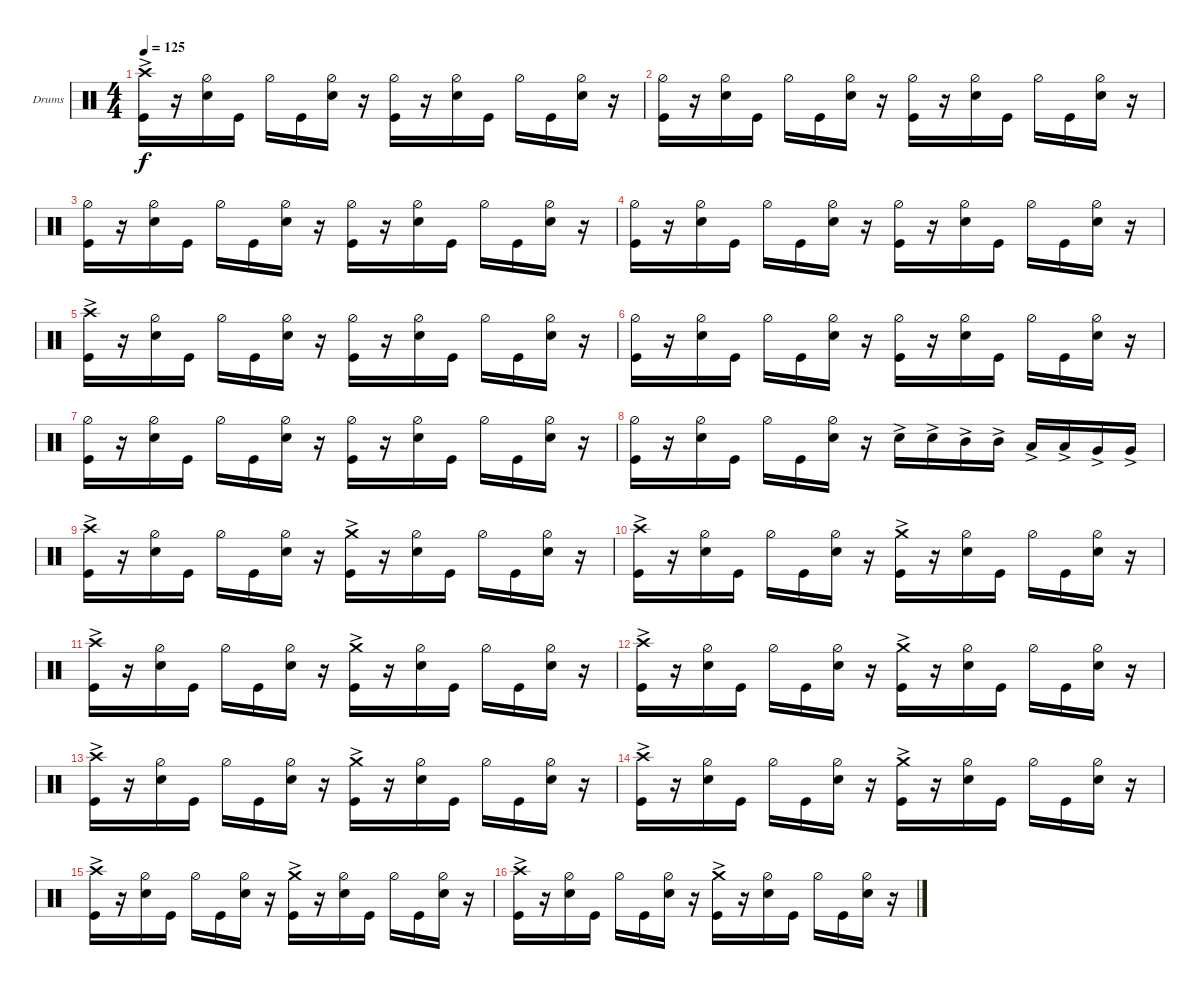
\defaultSystemsLayout 4
\bracketExtendMode groupsimilarinstruments
\firstSystemTrackNameOrientation horizontal
\otherSystemsTrackNameOrientation horizontal
\track ("Lorenzo Milani" "Drums") {instrument percussion}
\staff {score}
\articulation defaults
\ts (4 4)
\tempo 125
\clef neutral
\ks c
("Kick (hit)"{ac} "Crash high (hit)"{ac}).16{dy f} r.16 ("Snare (hit) 2" "Hi-Hat (half)").16 "Kick (hit)".16 "Hi-Hat (half)".16 "Kick (hit)".16 ("Snare (hit) 2" "Hi-Hat (half)").16 r.16 ("Kick (hit)" "Hi-Hat (half)").16 r.16 ("Snare (hit) 2" "Hi-Hat (half)").16 "Kick (hit)".16 "Hi-Hat (half)".16 "Kick (hit)".16 ("Snare (hit) 2" "Hi-Hat (half)").16 r.16 |
("Kick (hit)" "Hi-Hat (half)").16 r.16 ("Snare (hit) 2" "Hi-Hat (half)").16 "Kick (hit)".16 "Hi-Hat (half)".16 "Kick (hit)".16 ("Snare (hit) 2" "Hi-Hat (half)").16 r.16 ("Kick (hit)" "Hi-Hat (half)").16 r.16 ("Snare (hit) 2" "Hi-Hat (half)").16 "Kick (hit)".16 "Hi-Hat (half)".16 "Kick (hit)".16 ("Snare (hit) 2" "Hi-Hat (half)").16 r.16 |
("Kick (hit)" "Hi-Hat (half)").16 r.16 ("Snare (hit) 2" "Hi-Hat (half)").16 "Kick (hit)".16 "Hi-Hat (half)".16 "Kick (hit)".16 ("Snare (hit) 2" "Hi-Hat (half)").16 r.16 ("Kick (hit)" "Hi-Hat (half)").16 r.16 ("Snare (hit) 2" "Hi-Hat (half)").16 "Kick (hit)".16 "Hi-Hat (half)".16 "Kick (hit)".16 ("Snare (hit) 2" "Hi-Hat (half)").16 r.16 |
("Kick (hit)" "Hi-Hat (half)").16 r.16 ("Snare (hit) 2" "Hi-Hat (half)").16 "Kick (hit)".16 "Hi-Hat (half)".16 "Kick (hit)".16 ("Snare (hit) 2" "Hi-Hat (half)").16 r.16 ("Kick (hit)" "Hi-Hat (half)").16 r.16 ("Snare (hit) 2" "Hi-Hat (half)").16 "Kick (hit)".16 "Hi-Hat (half)".16 "Kick (hit)".16 ("Snare (hit) 2" "Hi-Hat (half)").16 r.16 |
("Kick (hit)"{ac} "Crash high (hit)"{ac}).16 r.16 ("Snare (hit) 2" "Hi-Hat (half)").16 "Kick (hit)".16 "Hi-Hat (half)".16 "Kick (hit)".16 ("Snare (hit) 2" "Hi-Hat (half)").16 r.16 ("Kick (hit)" "Hi-Hat (half)").16 r.16 ("Snare (hit) 2" "Hi-Hat (half)").16 "Kick (hit)".16 "Hi-Hat (half)".16 "Kick (hit)".16 ("Snare (hit) 2" "Hi-Hat (half)").16 r.16 |
("Kick (hit)" "Hi-Hat (half)").16 r.16 ("Snare (hit) 2" "Hi-Hat (half)").16 "Kick (hit)".16 "Hi-Hat (half)".16 "Kick (hit)".16 ("Snare (hit) 2" "Hi-Hat (half)").16 r.16 ("Kick (hit)" "Hi-Hat (half)").16 r.16 ("Snare (hit) 2" "Hi-Hat (half)").16 "Kick (hit)".16 "Hi-Hat (half)".16 "Kick (hit)".16 ("Snare (hit) 2" "Hi-Hat (half)").16 r.16 |
("Kick (hit)" "Hi-Hat (half)").16 r.16 ("Snare (hit) 2" "Hi-Hat (half)").16 "Kick (hit)".16 "Hi-Hat (half)".16 "Kick (hit)".16 ("Snare (hit) 2" "Hi-Hat (half)").16 r.16 ("Kick (hit)" "Hi-Hat (half)").16 r.16 ("Snare (hit) 2" "Hi-Hat (half)").16 "Kick (hit)".16 "Hi-Hat (half)".16 "Kick (hit)".16 ("Snare (hit) 2" "Hi-Hat (half)").16 r.16 |
("Kick (hit)" "Hi-Hat (half)").16 r.16 ("Snare (hit) 2" "Hi-Hat (half)").16 "Kick (hit)".16 "Hi-Hat (half)".16 "Kick (hit)".16 ("Snare (hit) 2" "Hi-Hat (half)").16 r.16 "Snare (hit) 2"{ac}.16 "Snare (hit) 2"{ac}.16 "Mid Tom (hit)"{ac}.16 "Mid Tom (hit)"{ac}.16 "Low Tom (hit)"{ac}.16 "Low Tom (hit)"{ac}.16 "Very Low Tom (hit)"{ac}.16 "Very Low Tom (hit)"{ac}.16 |
("Kick (hit)"{ac} "Crash high (hit)"{ac}).16 r.16 ("Snare (hit) 2" "Hi-Hat (half)").16 "Kick (hit)".16 "Hi-Hat (half)".16 "Kick (hit)".16 ("Snare (hit) 2" "Hi-Hat (half)").16 r.16 ("Kick (hit)"{ac} "Crash medium (hit)"{ac}).16 r.16 ("Snare (hit) 2" "Hi-Hat (half)").16 "Kick (hit)".16 "Hi-Hat (half)".16 "Kick (hit)".16 ("Snare (hit) 2" "Hi-Hat (half)").16 r.16 |
("Kick (hit)"{ac} "Crash high (hit)"{ac}).16 r.16 ("Snare (hit) 2" "Hi-Hat (half)").16 "Kick (hit)".16 "Hi-Hat (half)".16 "Kick (hit)".16 ("Snare (hit) 2" "Hi-Hat (half)").16 r.16 ("Kick (hit)"{ac} "Crash medium (hit)"{ac}).16 r.16 ("Snare (hit) 2" "Hi-Hat (half)").16 "Kick (hit)".16 "Hi-Hat (half)".16 "Kick (hit)".16 ("Snare (hit) 2" "Hi-Hat (half)").16 r.16 |
("Kick (hit)"{ac} "Crash high (hit)"{ac}).16 r.16 ("Snare (hit) 2" "Hi-Hat (half)").16 "Kick (hit)".16 "Hi-Hat (half)".16 "Kick (hit)".16 ("Snare (hit) 2" "Hi-Hat (half)").16 r.16 ("Kick (hit)"{ac} "Crash medium (hit)"{ac}).16 r.16 ("Snare (hit) 2" "Hi-Hat (half)").16 "Kick (hit)".16 "Hi-Hat (half)".16 "Kick (hit)".16 ("Snare (hit) 2" "Hi-Hat (half)").16 r.16 |
("Kick (hit)"{ac} "Crash high (hit)"{ac}).16 r.16 ("Snare (hit) 2" "Hi-Hat (half)").16 "Kick (hit)".16 "Hi-Hat (half)".16 "Kick (hit)".16 ("Snare (hit) 2" "Hi-Hat (half)").16 r.16 ("Kick (hit)"{ac} "Crash medium (hit)"{ac}).16 r.16 ("Snare (hit) 2" "Hi-Hat (half)").16 "Kick (hit)".16 "Hi-Hat (half)".16 "Kick (hit)".16 ("Snare (hit) 2" "Hi-Hat (half)").16 r.16 |
("Kick (hit)"{ac} "Crash high (hit)"{ac}).16 r.16 ("Snare (hit) 2" "Hi-Hat (half)").16 "Kick (hit)".16 "Hi-Hat (half)".16 "Kick (hit)".16 ("Snare (hit) 2" "Hi-Hat (half)").16 r.16 ("Kick (hit)"{ac} "Crash medium (hit)"{ac}).16 r.16 ("Snare (hit) 2" "Hi-Hat (half)").16 "Kick (hit)".16 "Hi-Hat (half)".16 "Kick (hit)".16 ("Snare (hit) 2" "Hi-Hat (half)").16 r.16 |
("Kick (hit)"{ac} "Crash high (hit)"{ac}).16 r.16 ("Snare (hit) 2" "Hi-Hat (half)").16 "Kick (hit)".16 "Hi-Hat (half)".16 "Kick (hit)".16 ("Snare (hit) 2" "Hi-Hat (half)").16 r.16 ("Kick (hit)"{ac} "Crash medium (hit)"{ac}).16 r.16 ("Snare (hit) 2" "Hi-Hat (half)").16 "Kick (hit)".16 "Hi-Hat (half)".16 "Kick (hit)".16 ("Snare (hit) 2" "Hi-Hat (half)").16 r.16 |
("Kick (hit)"{ac} "Crash high (hit)"{ac}).16 r.16 ("Snare (hit) 2" "Hi-Hat (half)").16 "Kick (hit)".16 "Hi-Hat (half)".16 "Kick (hit)".16 ("Snare (hit) 2" "Hi-Hat (half)").16 r.16 ("Kick (hit)"{ac} "Crash medium (hit)"{ac}).16 r.16 ("Snare (hit) 2" "Hi-Hat (half)").16 "Kick (hit)".16 "Hi-Hat (half)".16 "Kick (hit)".16 ("Snare (hit) 2" "Hi-Hat (half)").16 r.16 |
("Kick (hit)"{ac} "Crash high (hit)"{ac}).16 r.16 ("Snare (hit) 2" "Hi-Hat (half)").16 "Kick (hit)".16 "Hi-Hat (half)".16 "Kick (hit)".16 ("Snare (hit) 2" "Hi-Hat (half)").16 r.16 ("Kick (hit)"{ac} "Crash medium (hit)"{ac}).16 r.16 ("Snare (hit) 2" "Hi-Hat (half)").16 "Kick (hit)".16 "Hi-Hat (half)".16 "Kick (hit)".16 ("Snare (hit) 2" "Hi-Hat (half)").16 r.16
